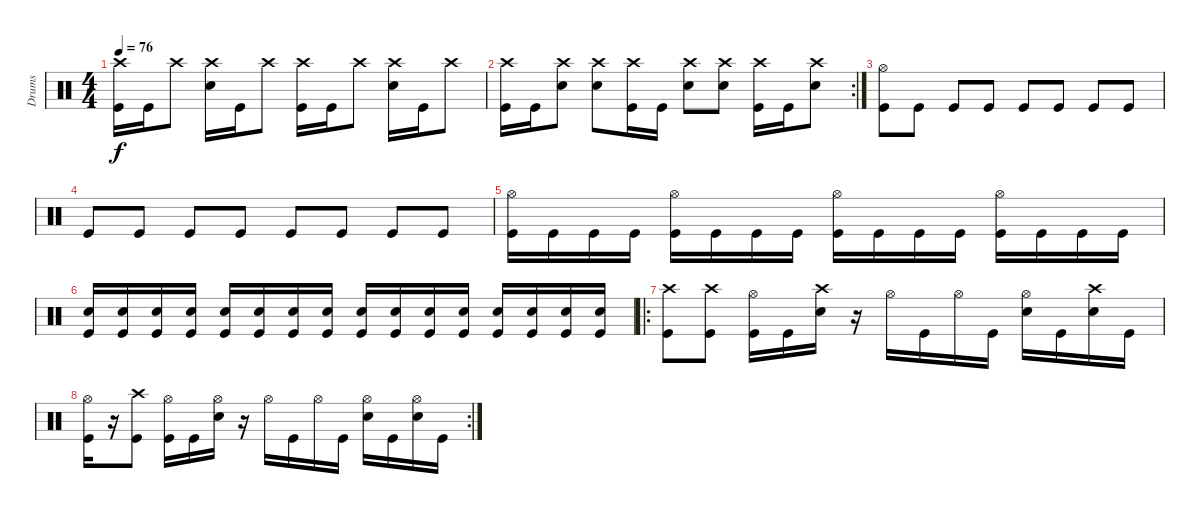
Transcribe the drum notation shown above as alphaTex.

\track ("Drums" "Drums") {instrument percussion}
\staff {score}
\articulation defaults
\ts (4 4)
\tempo 76
\clef neutral
\ks c
("Crash high (hit)" "Kick (hit)").16{dy f} "Kick (hit)".16 "Crash high (hit)".8 ("Crash high (hit)" "Electric Snare (hit)").16 "Kick (hit)".16 "Crash high (hit)".8 ("Crash high (hit)" "Kick (hit)").16 "Kick (hit)".16 "Crash high (hit)".8 ("Crash high (hit)" "Electric Snare (hit)").16 "Kick (hit)".16 "Crash high (hit)".8 |
\rc 2
("Crash high (hit)" "Kick (hit)").16 "Kick (hit)".16 ("Crash high (hit)" "Electric Snare (hit)").8 ("Crash high (hit)" "Electric Snare (hit)").8 ("Crash high (hit)" "Kick (hit)").16 "Kick (hit)".16 ("Crash high (hit)" "Electric Snare (hit)").8 ("Crash high (hit)" "Electric Snare (hit)").8 ("Crash high (hit)" "Kick (hit)").16 "Kick (hit)".16 ("Crash high (hit)" "Electric Snare (hit)").8 |
("Hi-Hat (open)" "Kick (hit)").8 "Kick (hit)".8 "Kick (hit)".8 "Kick (hit)".8 "Kick (hit)".8 "Kick (hit)".8 "Kick (hit)".8 "Kick (hit)".8 |
"Kick (hit)".8 "Kick (hit)".8 "Kick (hit)".8 "Kick (hit)".8 "Kick (hit)".8 "Kick (hit)".8 "Kick (hit)".8 "Kick (hit)".8 |
("Hi-Hat (open)" "Kick (hit)").16 "Kick (hit)".16 "Kick (hit)".16 "Kick (hit)".16 ("Hi-Hat (open)" "Kick (hit)").16 "Kick (hit)".16 "Kick (hit)".16 "Kick (hit)".16 ("Hi-Hat (open)" "Kick (hit)").16 "Kick (hit)".16 "Kick (hit)".16 "Kick (hit)".16 ("Hi-Hat (open)" "Kick (hit)").16 "Kick (hit)".16 "Kick (hit)".16 "Kick (hit)".16 |
("Electric Snare (hit)" "Kick (hit)").16 ("Electric Snare (hit)" "Kick (hit)").16 ("Electric Snare (hit)" "Kick (hit)").16 ("Electric Snare (hit)" "Kick (hit)").16 ("Electric Snare (hit)" "Kick (hit)").16 ("Electric Snare (hit)" "Kick (hit)").16 ("Electric Snare (hit)" "Kick (hit)").16 ("Electric Snare (hit)" "Kick (hit)").16 ("Electric Snare (hit)" "Kick (hit)").16 ("Electric Snare (hit)" "Kick (hit)").16 ("Electric Snare (hit)" "Kick (hit)").16 ("Electric Snare (hit)" "Kick (hit)").16 ("Electric Snare (hit)" "Kick (hit)").16 ("Electric Snare (hit)" "Kick (hit)").16 ("Electric Snare (hit)" "Kick (hit)").16 ("Electric Snare (hit)" "Kick (hit)").16 |
\ro
("Crash high (hit)" "Kick (hit)").8 ("Crash high (hit)" "Kick (hit)").8 ("Hi-Hat (open)" "Kick (hit)").16 "Kick (hit)".16 ("Crash high (hit)" "Electric Snare (hit)").16 r.16 "Hi-Hat (open)".16 "Kick (hit)".16 "Hi-Hat (open)".16 "Kick (hit)".16 ("Hi-Hat (open)" "Electric Snare (hit)").16 "Kick (hit)".16 ("Crash high (hit)" "Electric Snare (hit)").16 "Kick (hit)".16 |
\rc 2
("Hi-Hat (open)" "Kick (hit)").16 r.16 ("Crash high (hit)" "Kick (hit)").8 ("Hi-Hat (open)" "Kick (hit)").16 "Kick (hit)".16 ("Hi-Hat (open)" "Electric Snare (hit)").16 r.16 "Hi-Hat (open)".16 "Kick (hit)".16 "Hi-Hat (open)".16 "Kick (hit)".16 ("Hi-Hat (open)" "Electric Snare (hit)").16 "Kick (hit)".16 ("Hi-Hat (open)" "Electric Snare (hit)").16 "Kick (hit)".16
